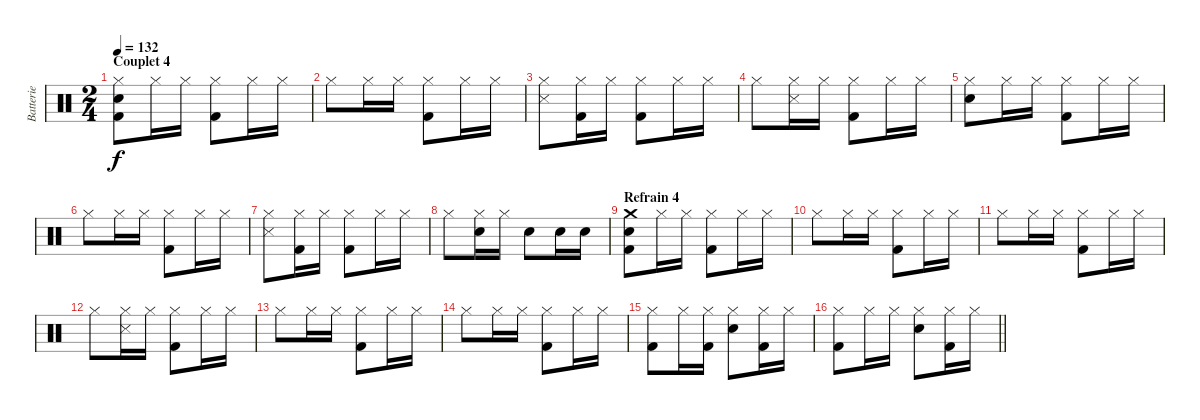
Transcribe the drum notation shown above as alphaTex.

\track ("Batterie" "Batterie") {instrument percussion}
\staff {score}
\articulation defaults
\ts (2 4)
\section ("" "Couplet 4")
\tempo 132
\clef neutral
\ks c
("Hi-Hat (closed)" "Snare (hit) 2" "Kick (hit) 2").8{dy f} "Hi-Hat (closed)".16 "Hi-Hat (closed)".16 ("Hi-Hat (closed)" "Kick (hit) 2").8 "Hi-Hat (closed)".16 "Hi-Hat (closed)".16 |
"Hi-Hat (closed)".8 "Hi-Hat (closed)".16 "Hi-Hat (closed)".16 ("Hi-Hat (closed)" "Kick (hit) 2").8 "Hi-Hat (closed)".16 "Hi-Hat (closed)".16 |
("Hi-Hat (closed)" "Snare (side stick) 3").8 ("Hi-Hat (closed)" "Kick (hit) 2").16 "Hi-Hat (closed)".16 ("Hi-Hat (closed)" "Kick (hit) 2").8 "Hi-Hat (closed)".16 "Hi-Hat (closed)".16 |
"Hi-Hat (closed)".8 ("Hi-Hat (closed)" "Snare (side stick) 3").16 "Hi-Hat (closed)".16 ("Hi-Hat (closed)" "Kick (hit) 2").8 "Hi-Hat (closed)".16 "Hi-Hat (closed)".16 |
("Hi-Hat (closed)" "Snare (hit) 2").8 "Hi-Hat (closed)".16 "Hi-Hat (closed)".16 ("Hi-Hat (closed)" "Kick (hit) 2").8 "Hi-Hat (closed)".16 "Hi-Hat (closed)".16 |
"Hi-Hat (closed)".8 "Hi-Hat (closed)".16 "Hi-Hat (closed)".16 ("Hi-Hat (closed)" "Kick (hit) 2").8 "Hi-Hat (closed)".16 "Hi-Hat (closed)".16 |
("Hi-Hat (closed)" "Snare (side stick) 3").8 ("Hi-Hat (closed)" "Kick (hit) 2").16 "Hi-Hat (closed)".16 ("Hi-Hat (closed)" "Kick (hit) 2").8 "Hi-Hat (closed)".16 "Hi-Hat (closed)".16 |
"Hi-Hat (closed)".8 ("Hi-Hat (closed)" "Snare (hit) 2").16 "Hi-Hat (closed)".16 "Snare (hit) 2".8 "Snare (hit) 2".16 "Snare (hit) 2".16 |
\section ("" "Refrain 4")
("Crash medium (hit)" "Snare (hit) 2" "Kick (hit) 2").8 "Hi-Hat (closed)".16 "Hi-Hat (closed)".16 ("Hi-Hat (closed)" "Kick (hit) 2").8 "Hi-Hat (closed)".16 "Hi-Hat (closed)".16 |
"Hi-Hat (closed)".8 "Hi-Hat (closed)".16 "Hi-Hat (closed)".16 ("Hi-Hat (closed)" "Kick (hit) 2").8 "Hi-Hat (closed)".16 "Hi-Hat (closed)".16 |
"Hi-Hat (closed)".8 "Hi-Hat (closed)".16 "Hi-Hat (closed)".16 ("Hi-Hat (closed)" "Kick (hit) 2").8 "Hi-Hat (closed)".16 "Hi-Hat (closed)".16 |
"Hi-Hat (closed)".8 ("Hi-Hat (closed)" "Snare (side stick) 3").16 "Hi-Hat (closed)".16 ("Hi-Hat (closed)" "Kick (hit) 2").8 "Hi-Hat (closed)".16 "Hi-Hat (closed)".16 |
"Hi-Hat (closed)".8 "Hi-Hat (closed)".16 "Hi-Hat (closed)".16 ("Hi-Hat (closed)" "Kick (hit) 2").8 "Hi-Hat (closed)".16 "Hi-Hat (closed)".16 |
"Hi-Hat (closed)".8 "Hi-Hat (closed)".16 "Hi-Hat (closed)".16 ("Hi-Hat (closed)" "Kick (hit) 2").8 "Hi-Hat (closed)".16 "Hi-Hat (closed)".16 |
("Hi-Hat (closed)" "Kick (hit) 2").8 "Hi-Hat (closed)".16 ("Hi-Hat (closed)" "Kick (hit) 2").16 ("Hi-Hat (closed)" "Snare (hit) 2").8 ("Hi-Hat (closed)" "Kick (hit) 2").16 "Hi-Hat (closed)".16 |
\barLineRight lightlight
("Hi-Hat (closed)" "Kick (hit) 2").8 "Hi-Hat (closed)".16 "Hi-Hat (closed)".16 ("Hi-Hat (closed)" "Snare (hit) 2").8 ("Hi-Hat (closed)" "Kick (hit) 2").16 "Hi-Hat (closed)".16
